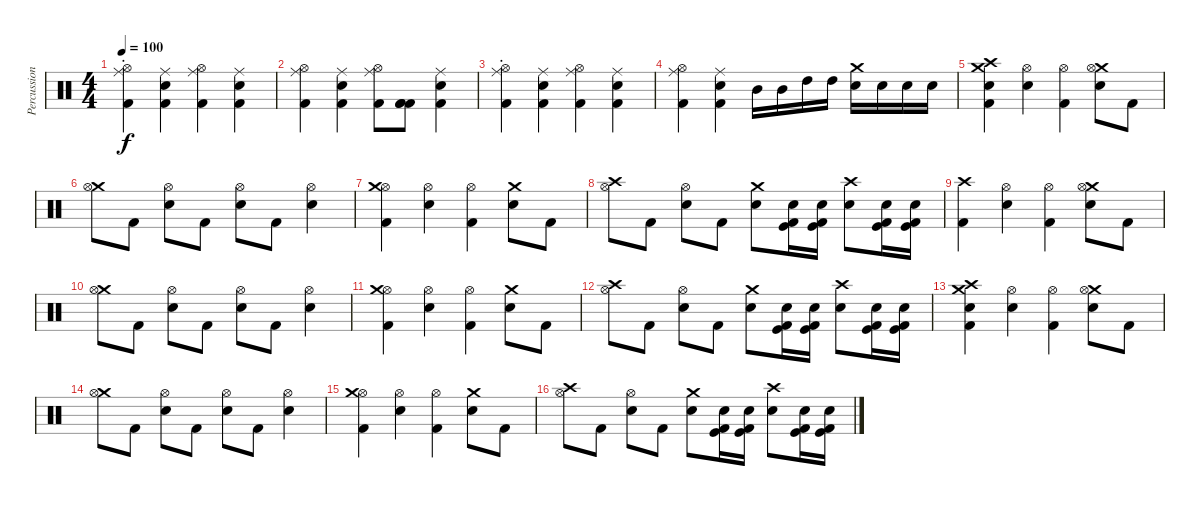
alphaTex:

\track ("Percussions" "Percussion") {instrument percussion}
\staff {score}
\articulation defaults
\ts (4 4)
\tempo 100
\clef neutral
\ks c
("Ride (middle)" "Kick (hit) 2" "Hi-Hat (open)"{st}).4{dy f} ("Snare (hit) 2" "Kick (hit) 2" "Ride (middle)").4 ("Kick (hit) 2" "Ride (middle)" "Hi-Hat (open)").4 ("Kick (hit) 2" "Snare (hit) 2" "Ride (middle)").4 |
("Kick (hit) 2" "Ride (middle)" "Hi-Hat (open)").4 ("Kick (hit) 2" "Snare (hit) 2" "Ride (middle)").4 ("Kick (hit) 2" "Ride (middle)" "Hi-Hat (open)").8 ("Kick (hit) 2" "Kick (hit) 2" "Kick (hit) 2").8 ("Kick (hit) 2" "Snare (hit) 2" "Ride (middle)").4 |
("Ride (middle)" "Kick (hit) 2" "Hi-Hat (open)"{st}).4 ("Snare (hit) 2" "Kick (hit) 2" "Ride (middle)").4 ("Kick (hit) 2" "Ride (middle)" "Hi-Hat (open)").4 ("Kick (hit) 2" "Snare (hit) 2" "Ride (middle)").4 |
("Kick (hit) 2" "Ride (middle)" "Hi-Hat (open)").4 ("Kick (hit) 2" "Snare (hit) 2" "Ride (middle)").4 "Mid Tom (hit)".16 "Mid Tom (hit)".16 "High Tom (hit)".16 "High Tom (hit)".16 ("Crash medium (hit)" "Snare (hit) 2").16 "Snare (hit) 2".16 "Snare (hit) 2".16 "Snare (hit) 2".16 |
("Crash medium (hit)" "Crash high (hit)" "Snare (hit) 2" "Kick (hit) 2").4 ("Hi-Hat (open)" "Snare (hit) 2").4 ("Hi-Hat (open)" "Kick (hit) 2").4 ("Crash medium (hit)" "Hi-Hat (open)" "Snare (hit) 2").8 "Kick (hit) 2".8 |
("Crash medium (hit)" "Hi-Hat (open)").8 "Kick (hit) 2".8 ("Hi-Hat (open)" "Snare (hit) 2").8 "Kick (hit) 2".8 ("Hi-Hat (open)" "Snare (hit) 2").8 "Kick (hit) 2".8 ("Hi-Hat (open)" "Snare (hit) 2").4 |
("Hi-Hat (open)" "Crash medium (hit)" "Kick (hit) 2").4 ("Hi-Hat (open)" "Snare (hit) 2").4 ("Hi-Hat (open)" "Kick (hit) 2").4 ("Crash medium (hit)" "Snare (hit) 2").8 "Kick (hit) 2".8 |
("Crash high (hit)" "Hi-Hat (open)").8 "Kick (hit) 2".8 ("Hi-Hat (open)" "Snare (hit) 2").8 "Kick (hit) 2".8 ("Crash medium (hit)" "Snare (hit) 2").8 ("Snare (hit) 2" "Kick (hit)" "Kick (hit) 2").16 ("Snare (hit) 2" "Kick (hit)" "Kick (hit) 2").16 ("Crash high (hit)" "Snare (hit) 2").8 ("Snare (hit) 2" "Kick (hit)" "Kick (hit) 2").16 ("Snare (hit) 2" "Kick (hit)" "Kick (hit) 2").16 |
("Crash high (hit)" "Kick (hit) 2").4 ("Hi-Hat (open)" "Snare (hit) 2").4 ("Hi-Hat (open)" "Kick (hit) 2").4 ("Crash medium (hit)" "Hi-Hat (open)" "Snare (hit) 2").8 "Kick (hit) 2".8 |
("Crash medium (hit)" "Hi-Hat (open)").8 "Kick (hit) 2".8 ("Hi-Hat (open)" "Snare (hit) 2").8 "Kick (hit) 2".8 ("Hi-Hat (open)" "Snare (hit) 2").8 "Kick (hit) 2".8 ("Hi-Hat (open)" "Snare (hit) 2").4 |
("Hi-Hat (open)" "Crash medium (hit)" "Kick (hit) 2").4 ("Hi-Hat (open)" "Snare (hit) 2").4 ("Hi-Hat (open)" "Kick (hit) 2").4 ("Crash medium (hit)" "Snare (hit) 2").8 "Kick (hit) 2".8 |
("Crash high (hit)" "Hi-Hat (open)").8 "Kick (hit) 2".8 ("Hi-Hat (open)" "Snare (hit) 2").8 "Kick (hit) 2".8 ("Crash medium (hit)" "Snare (hit) 2").8 ("Snare (hit) 2" "Kick (hit)" "Kick (hit) 2").16 ("Snare (hit) 2" "Kick (hit)" "Kick (hit) 2").16 ("Crash high (hit)" "Snare (hit) 2").8 ("Snare (hit) 2" "Kick (hit)" "Kick (hit) 2").16 ("Snare (hit) 2" "Kick (hit)" "Kick (hit) 2").16 |
("Crash medium (hit)" "Crash high (hit)" "Snare (hit) 2" "Kick (hit) 2").4 ("Hi-Hat (open)" "Snare (hit) 2").4 ("Hi-Hat (open)" "Kick (hit) 2").4 ("Crash medium (hit)" "Hi-Hat (open)" "Snare (hit) 2").8 "Kick (hit) 2".8 |
("Crash medium (hit)" "Hi-Hat (open)").8 "Kick (hit) 2".8 ("Hi-Hat (open)" "Snare (hit) 2").8 "Kick (hit) 2".8 ("Hi-Hat (open)" "Snare (hit) 2").8 "Kick (hit) 2".8 ("Hi-Hat (open)" "Snare (hit) 2").4 |
("Hi-Hat (open)" "Crash medium (hit)" "Kick (hit) 2").4 ("Hi-Hat (open)" "Snare (hit) 2").4 ("Hi-Hat (open)" "Kick (hit) 2").4 ("Crash medium (hit)" "Snare (hit) 2").8 "Kick (hit) 2".8 |
("Crash high (hit)" "Hi-Hat (open)").8 "Kick (hit) 2".8 ("Hi-Hat (open)" "Snare (hit) 2").8 "Kick (hit) 2".8 ("Crash medium (hit)" "Snare (hit) 2").8 ("Snare (hit) 2" "Kick (hit)" "Kick (hit) 2").16 ("Snare (hit) 2" "Kick (hit)" "Kick (hit) 2").16 ("Crash high (hit)" "Snare (hit) 2").8 ("Snare (hit) 2" "Kick (hit)" "Kick (hit) 2").16 ("Snare (hit) 2" "Kick (hit)" "Kick (hit) 2").16
